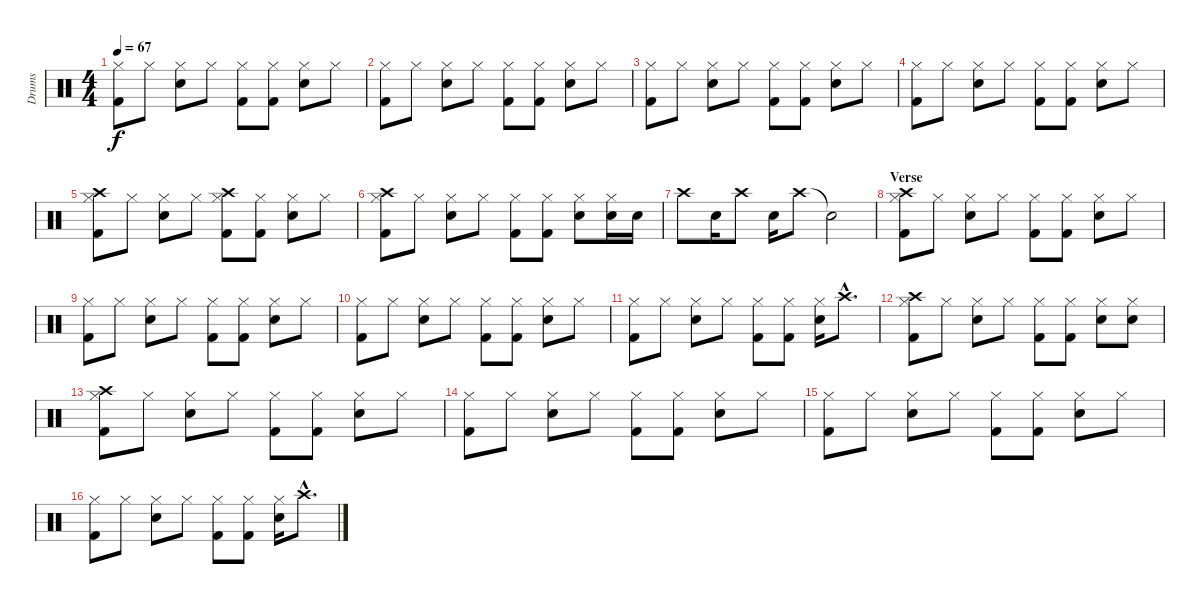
\track ("Drums" "Drums") {instrument percussion}
\staff {score}
\articulation defaults
\ts (4 4)
\tempo 67
\clef neutral
\ks c
("Hi-Hat (closed)" "Kick (hit) 2").8{dy f} "Hi-Hat (closed)".8 ("Hi-Hat (closed)" "Snare (hit) 2").8 "Hi-Hat (closed)".8 ("Hi-Hat (closed)" "Kick (hit) 2").8 ("Hi-Hat (closed)" "Kick (hit) 2").8 ("Hi-Hat (closed)" "Snare (hit) 2").8 "Hi-Hat (closed)".8 |
("Hi-Hat (closed)" "Kick (hit) 2").8 "Hi-Hat (closed)".8 ("Hi-Hat (closed)" "Snare (hit) 2").8 "Hi-Hat (closed)".8 ("Hi-Hat (closed)" "Kick (hit) 2").8 ("Hi-Hat (closed)" "Kick (hit) 2").8 ("Hi-Hat (closed)" "Snare (hit) 2").8 "Hi-Hat (closed)".8 |
("Hi-Hat (closed)" "Kick (hit) 2").8 "Hi-Hat (closed)".8 ("Hi-Hat (closed)" "Snare (hit) 2").8 "Hi-Hat (closed)".8 ("Hi-Hat (closed)" "Kick (hit) 2").8 ("Hi-Hat (closed)" "Kick (hit) 2").8 ("Hi-Hat (closed)" "Snare (hit) 2").8 "Hi-Hat (closed)".8 |
("Hi-Hat (closed)" "Kick (hit) 2").8 "Hi-Hat (closed)".8 ("Hi-Hat (closed)" "Snare (hit) 2").8 "Hi-Hat (closed)".8 ("Hi-Hat (closed)" "Kick (hit) 2").8 ("Hi-Hat (closed)" "Kick (hit) 2").8 ("Hi-Hat (closed)" "Snare (hit) 2").8 "Hi-Hat (closed)".8 |
("Hi-Hat (closed)" "Kick (hit) 2" "Crash high (hit)").8 "Hi-Hat (closed)".8 ("Hi-Hat (closed)" "Snare (hit) 2").8 "Hi-Hat (closed)".8 ("Hi-Hat (closed)" "Kick (hit) 2" "Crash high (hit)").8 ("Hi-Hat (closed)" "Kick (hit) 2").8 ("Hi-Hat (closed)" "Snare (hit) 2").8 "Hi-Hat (closed)".8 |
("Hi-Hat (closed)" "Kick (hit) 2" "Crash high (hit)").8 "Hi-Hat (closed)".8 ("Hi-Hat (closed)" "Snare (hit) 2").8 "Hi-Hat (closed)".8 ("Hi-Hat (closed)" "Kick (hit) 2").8 ("Hi-Hat (closed)" "Kick (hit) 2").8 ("Hi-Hat (closed)" "Snare (hit) 2").8 ("Hi-Hat (closed)" "Snare (hit) 2").16 "Snare (hit) 2".16 |
"Crash high (hit)".8 "Snare (hit) 2".16 "Crash high (hit)".8 "Snare (hit) 2".16 "Crash high (hit)".8 "Snare (hit)"{t}.2 |
\section ("" "Verse")
("Hi-Hat (closed)" "Kick (hit) 2" "Crash high (hit)").8 "Hi-Hat (closed)".8 ("Hi-Hat (closed)" "Snare (hit) 2").8 "Hi-Hat (closed)".8 ("Hi-Hat (closed)" "Kick (hit) 2").8 ("Hi-Hat (closed)" "Kick (hit) 2").8 ("Hi-Hat (closed)" "Snare (hit) 2").8 "Hi-Hat (closed)".8 |
("Hi-Hat (closed)" "Kick (hit) 2").8 "Hi-Hat (closed)".8 ("Hi-Hat (closed)" "Snare (hit) 2").8 "Hi-Hat (closed)".8 ("Hi-Hat (closed)" "Kick (hit) 2").8 ("Hi-Hat (closed)" "Kick (hit) 2").8 ("Hi-Hat (closed)" "Snare (hit) 2").8 "Hi-Hat (closed)".8 |
("Hi-Hat (closed)" "Kick (hit) 2").8 "Hi-Hat (closed)".8 ("Hi-Hat (closed)" "Snare (hit) 2").8 "Hi-Hat (closed)".8 ("Hi-Hat (closed)" "Kick (hit) 2").8 ("Hi-Hat (closed)" "Kick (hit) 2").8 ("Hi-Hat (closed)" "Snare (hit) 2").8 "Hi-Hat (closed)".8 |
("Hi-Hat (closed)" "Kick (hit) 2").8 "Hi-Hat (closed)".8 ("Hi-Hat (closed)" "Snare (hit) 2").8 "Hi-Hat (closed)".8 ("Hi-Hat (closed)" "Kick (hit) 2").8 ("Hi-Hat (closed)" "Kick (hit) 2").8 ("Hi-Hat (closed)" "Snare (hit) 2").16 "Crash high (hit)"{hac}.8{d} |
("Crash high (hit)" "Hi-Hat (closed)" "Kick (hit) 2").8 "Hi-Hat (closed)".8 ("Hi-Hat (closed)" "Snare (hit) 2").8 "Hi-Hat (closed)".8 ("Hi-Hat (closed)" "Kick (hit) 2").8 ("Hi-Hat (closed)" "Kick (hit) 2").8 ("Hi-Hat (closed)" "Snare (hit) 2").8 ("Hi-Hat (closed)" "Snare (hit) 2").8 |
("Hi-Hat (closed)" "Kick (hit) 2" "Crash high (hit)").8 "Hi-Hat (closed)".8 ("Hi-Hat (closed)" "Snare (hit) 2").8 "Hi-Hat (closed)".8 ("Hi-Hat (closed)" "Kick (hit) 2").8 ("Hi-Hat (closed)" "Kick (hit) 2").8 ("Hi-Hat (closed)" "Snare (hit) 2").8 "Hi-Hat (closed)".8 |
("Hi-Hat (closed)" "Kick (hit) 2").8 "Hi-Hat (closed)".8 ("Hi-Hat (closed)" "Snare (hit) 2").8 "Hi-Hat (closed)".8 ("Hi-Hat (closed)" "Kick (hit) 2").8 ("Hi-Hat (closed)" "Kick (hit) 2").8 ("Hi-Hat (closed)" "Snare (hit) 2").8 "Hi-Hat (closed)".8 |
("Hi-Hat (closed)" "Kick (hit) 2").8 "Hi-Hat (closed)".8 ("Hi-Hat (closed)" "Snare (hit) 2").8 "Hi-Hat (closed)".8 ("Hi-Hat (closed)" "Kick (hit) 2").8 ("Hi-Hat (closed)" "Kick (hit) 2").8 ("Hi-Hat (closed)" "Snare (hit) 2").8 "Hi-Hat (closed)".8 |
("Hi-Hat (closed)" "Kick (hit) 2").8 "Hi-Hat (closed)".8 ("Hi-Hat (closed)" "Snare (hit) 2").8 "Hi-Hat (closed)".8 ("Hi-Hat (closed)" "Kick (hit) 2").8 ("Hi-Hat (closed)" "Kick (hit) 2").8 ("Hi-Hat (closed)" "Snare (hit) 2").16 "Crash high (hit)"{hac}.8{d}
